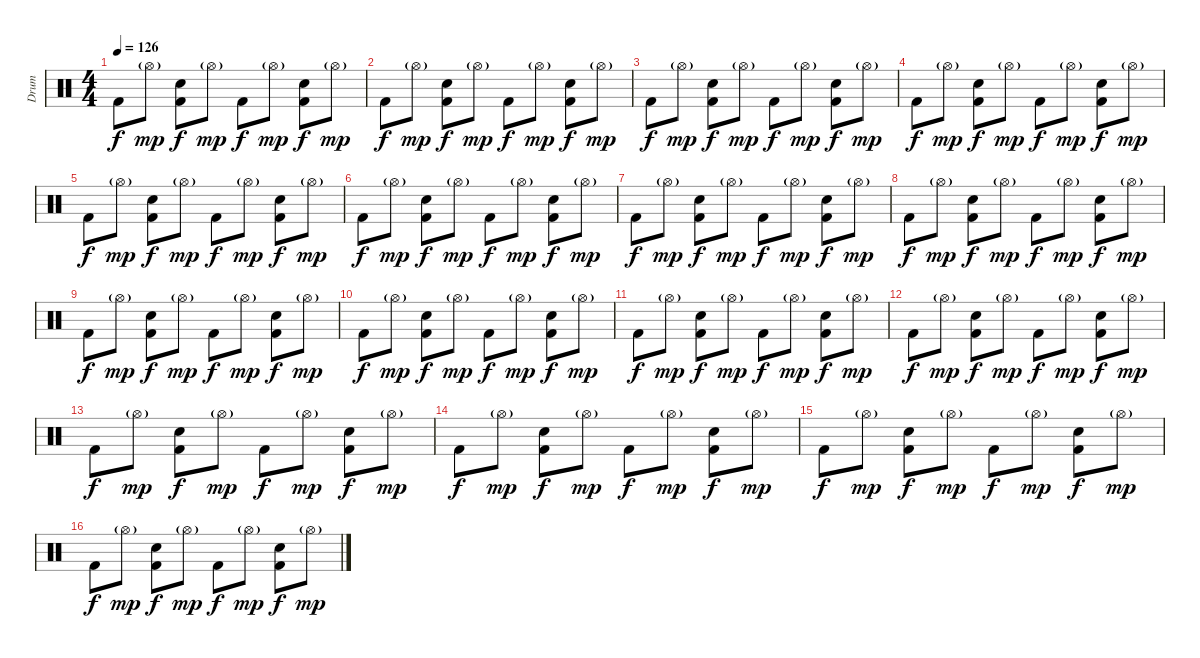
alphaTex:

\track ("Drum" "Drum") {instrument percussion}
\staff {score}
\articulation defaults
\ts (4 4)
\tempo 126
\clef neutral
\ks c "Kick (hit) 2".8{dy f} "Hi-Hat (open)"{g}.8{dy mp}
("Electric Snare (hit)" "Kick (hit) 2").8{dy f} "Hi-Hat (open)"{g}.8{dy mp} "Kick (hit) 2".8{dy f} "Hi-Hat (open)"{g}.8{dy mp} ("Electric Snare (hit)" "Kick (hit) 2").8{dy f} "Hi-Hat (open)"{g}.8{dy mp} |
"Kick (hit) 2".8{dy f} "Hi-Hat (open)"{g}.8{dy mp} ("Electric Snare (hit)" "Kick (hit) 2").8{dy f} "Hi-Hat (open)"{g}.8{dy mp} "Kick (hit) 2".8{dy f} "Hi-Hat (open)"{g}.8{dy mp} ("Electric Snare (hit)" "Kick (hit) 2").8{dy f} "Hi-Hat (open)"{g}.8{dy mp} |
"Kick (hit) 2".8{dy f} "Hi-Hat (open)"{g}.8{dy mp} ("Electric Snare (hit)" "Kick (hit) 2").8{dy f} "Hi-Hat (open)"{g}.8{dy mp} "Kick (hit) 2".8{dy f} "Hi-Hat (open)"{g}.8{dy mp} ("Electric Snare (hit)" "Kick (hit) 2").8{dy f} "Hi-Hat (open)"{g}.8{dy mp} |
"Kick (hit) 2".8{dy f} "Hi-Hat (open)"{g}.8{dy mp} ("Electric Snare (hit)" "Kick (hit) 2").8{dy f} "Hi-Hat (open)"{g}.8{dy mp} "Kick (hit) 2".8{dy f} "Hi-Hat (open)"{g}.8{dy mp} ("Electric Snare (hit)" "Kick (hit) 2").8{dy f} "Hi-Hat (open)"{g}.8{dy mp} |
"Kick (hit) 2".8{dy f} "Hi-Hat (open)"{g}.8{dy mp} ("Electric Snare (hit)" "Kick (hit) 2").8{dy f} "Hi-Hat (open)"{g}.8{dy mp} "Kick (hit) 2".8{dy f} "Hi-Hat (open)"{g}.8{dy mp} ("Electric Snare (hit)" "Kick (hit) 2").8{dy f} "Hi-Hat (open)"{g}.8{dy mp} |
"Kick (hit) 2".8{dy f} "Hi-Hat (open)"{g}.8{dy mp} ("Electric Snare (hit)" "Kick (hit) 2").8{dy f} "Hi-Hat (open)"{g}.8{dy mp} "Kick (hit) 2".8{dy f} "Hi-Hat (open)"{g}.8{dy mp} ("Electric Snare (hit)" "Kick (hit) 2").8{dy f} "Hi-Hat (open)"{g}.8{dy mp} |
"Kick (hit) 2".8{dy f} "Hi-Hat (open)"{g}.8{dy mp} ("Electric Snare (hit)" "Kick (hit) 2").8{dy f} "Hi-Hat (open)"{g}.8{dy mp} "Kick (hit) 2".8{dy f} "Hi-Hat (open)"{g}.8{dy mp} ("Electric Snare (hit)" "Kick (hit) 2").8{dy f} "Hi-Hat (open)"{g}.8{dy mp} |
"Kick (hit) 2".8{dy f} "Hi-Hat (open)"{g}.8{dy mp} ("Electric Snare (hit)" "Kick (hit) 2").8{dy f} "Hi-Hat (open)"{g}.8{dy mp} "Kick (hit) 2".8{dy f} "Hi-Hat (open)"{g}.8{dy mp} ("Electric Snare (hit)" "Kick (hit) 2").8{dy f} "Hi-Hat (open)"{g}.8{dy mp} |
"Kick (hit) 2".8{dy f} "Hi-Hat (open)"{g}.8{dy mp} ("Electric Snare (hit)" "Kick (hit) 2").8{dy f} "Hi-Hat (open)"{g}.8{dy mp} "Kick (hit) 2".8{dy f} "Hi-Hat (open)"{g}.8{dy mp} ("Electric Snare (hit)" "Kick (hit) 2").8{dy f} "Hi-Hat (open)"{g}.8{dy mp} |
"Kick (hit) 2".8{dy f} "Hi-Hat (open)"{g}.8{dy mp} ("Electric Snare (hit)" "Kick (hit) 2").8{dy f} "Hi-Hat (open)"{g}.8{dy mp} "Kick (hit) 2".8{dy f} "Hi-Hat (open)"{g}.8{dy mp} ("Electric Snare (hit)" "Kick (hit) 2").8{dy f} "Hi-Hat (open)"{g}.8{dy mp} |
"Kick (hit) 2".8{dy f} "Hi-Hat (open)"{g}.8{dy mp} ("Electric Snare (hit)" "Kick (hit) 2").8{dy f} "Hi-Hat (open)"{g}.8{dy mp} "Kick (hit) 2".8{dy f} "Hi-Hat (open)"{g}.8{dy mp} ("Electric Snare (hit)" "Kick (hit) 2").8{dy f} "Hi-Hat (open)"{g}.8{dy mp} |
"Kick (hit) 2".8{dy f} "Hi-Hat (open)"{g}.8{dy mp} ("Electric Snare (hit)" "Kick (hit) 2").8{dy f} "Hi-Hat (open)"{g}.8{dy mp} "Kick (hit) 2".8{dy f} "Hi-Hat (open)"{g}.8{dy mp} ("Electric Snare (hit)" "Kick (hit) 2").8{dy f} "Hi-Hat (open)"{g}.8{dy mp} |
"Kick (hit) 2".8{dy f} "Hi-Hat (open)"{g}.8{dy mp} ("Electric Snare (hit)" "Kick (hit) 2").8{dy f} "Hi-Hat (open)"{g}.8{dy mp} "Kick (hit) 2".8{dy f} "Hi-Hat (open)"{g}.8{dy mp} ("Electric Snare (hit)" "Kick (hit) 2").8{dy f} "Hi-Hat (open)"{g}.8{dy mp} |
"Kick (hit) 2".8{dy f} "Hi-Hat (open)"{g}.8{dy mp} ("Electric Snare (hit)" "Kick (hit) 2").8{dy f} "Hi-Hat (open)"{g}.8{dy mp} "Kick (hit) 2".8{dy f} "Hi-Hat (open)"{g}.8{dy mp} ("Electric Snare (hit)" "Kick (hit) 2").8{dy f} "Hi-Hat (open)"{g}.8{dy mp} |
"Kick (hit) 2".8{dy f} "Hi-Hat (open)"{g}.8{dy mp} ("Electric Snare (hit)" "Kick (hit) 2").8{dy f} "Hi-Hat (open)"{g}.8{dy mp} "Kick (hit) 2".8{dy f} "Hi-Hat (open)"{g}.8{dy mp} ("Electric Snare (hit)" "Kick (hit) 2").8{dy f} "Hi-Hat (open)"{g}.8{dy mp} |
"Kick (hit) 2".8{dy f} "Hi-Hat (open)"{g}.8{dy mp} ("Electric Snare (hit)" "Kick (hit) 2").8{dy f} "Hi-Hat (open)"{g}.8{dy mp} "Kick (hit) 2".8{dy f} "Hi-Hat (open)"{g}.8{dy mp} ("Electric Snare (hit)" "Kick (hit) 2").8{dy f} "Hi-Hat (open)"{g}.8{dy mp}
